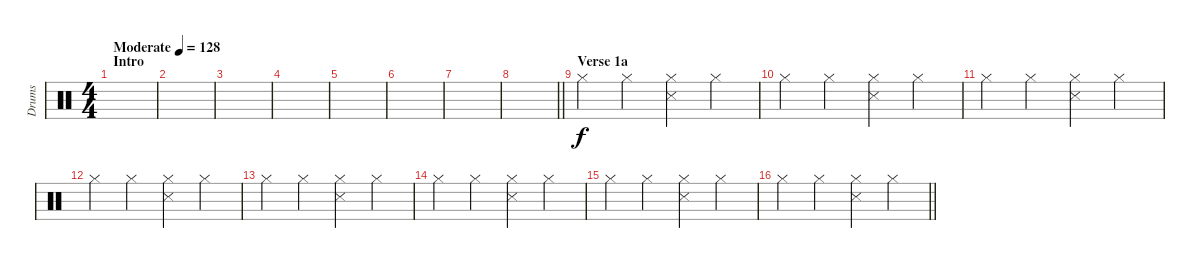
\track ("Drums" "Drums") {instrument percussion}
\staff {score}
\articulation defaults
\ts (4 4)
\section ("" "Intro")
\tempo (128 "Moderate")
\clef neutral
\ks c
|
|
|
|
|
|
|
\barLineRight lightlight
|
\section ("" "Verse 1a")
"Hi-Hat (closed)".4 "Hi-Hat (closed)".4 ("Hi-Hat (closed)" "Snare (side stick) 3").4 "Hi-Hat (closed)".4 |
"Hi-Hat (closed)".4 "Hi-Hat (closed)".4 ("Hi-Hat (closed)" "Snare (side stick) 3").4 "Hi-Hat (closed)".4 |
"Hi-Hat (closed)".4 "Hi-Hat (closed)".4 ("Hi-Hat (closed)" "Snare (side stick) 3").4 "Hi-Hat (closed)".4 |
"Hi-Hat (closed)".4 "Hi-Hat (closed)".4 ("Hi-Hat (closed)" "Snare (side stick) 3").4 "Hi-Hat (closed)".4 |
"Hi-Hat (closed)".4 "Hi-Hat (closed)".4 ("Hi-Hat (closed)" "Snare (side stick) 3").4 "Hi-Hat (closed)".4 |
"Hi-Hat (closed)".4 "Hi-Hat (closed)".4 ("Hi-Hat (closed)" "Snare (side stick) 3").4 "Hi-Hat (closed)".4 |
"Hi-Hat (closed)".4 "Hi-Hat (closed)".4 ("Hi-Hat (closed)" "Snare (side stick) 3").4 "Hi-Hat (closed)".4 |
\barLineRight lightlight "Hi-Hat (closed)".4 "Hi-Hat (closed)".4
("Hi-Hat (closed)" "Snare (side stick) 3").4 "Hi-Hat (closed)".4
